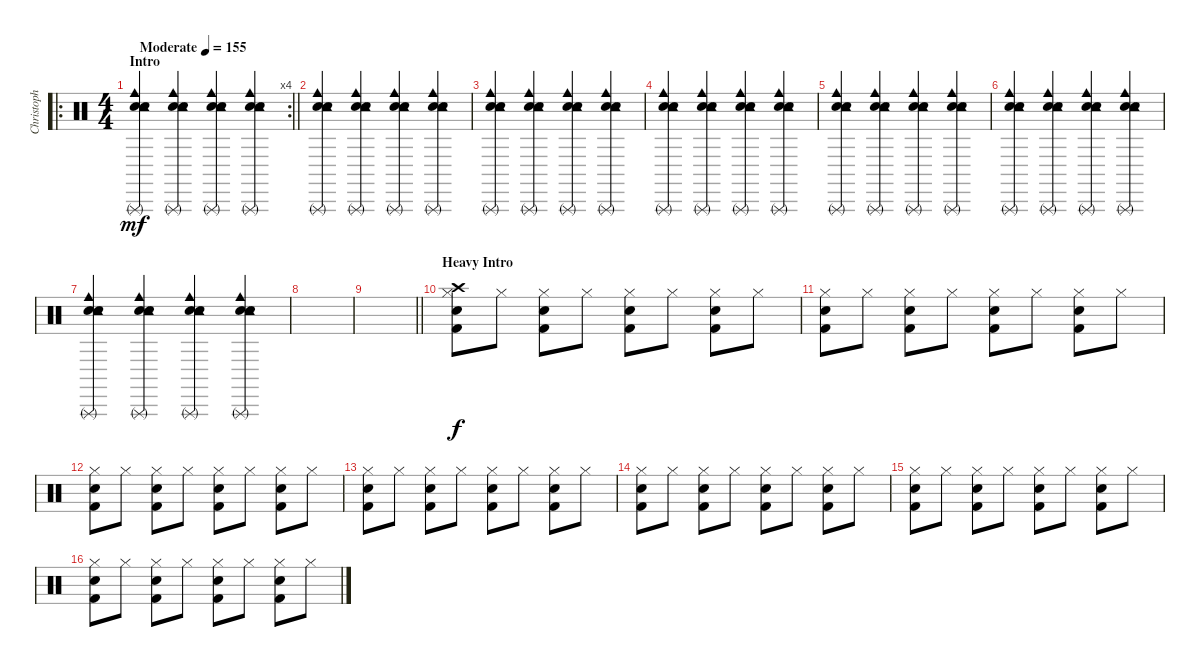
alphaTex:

\track ("Christoph \"Doom\" Schneider" "Christoph ") {instrument percussion}
\staff {score}
\articulation defaults
\ro
\rc 4
\ts (4 4)
\section ("" "Intro")
\tempo (155 "Moderate")
\clef neutral
\barLineRight lightlight
\ks c
("Electric Snare (hit)" "Tambourine (hit)" "Snare (hit) 2" "Cowbell medium (hit)" "Triangle (rnute)").4{dy mf} ("Electric Snare (hit)" "Tambourine (hit)" "Snare (hit) 2" "Cowbell medium (hit)" "Triangle (rnute)").4 ("Electric Snare (hit)" "Tambourine (hit)" "Snare (hit) 2" "Cowbell medium (hit)" "Triangle (rnute)").4 ("Electric Snare (hit)" "Tambourine (hit)" "Snare (hit) 2" "Cowbell medium (hit)" "Triangle (rnute)").4 |
\section ("" "")
("Electric Snare (hit)" "Tambourine (hit)" "Snare (hit) 2" "Cowbell medium (hit)" "Triangle (rnute)").4 ("Electric Snare (hit)" "Tambourine (hit)" "Snare (hit) 2" "Cowbell medium (hit)" "Triangle (rnute)").4 ("Electric Snare (hit)" "Tambourine (hit)" "Snare (hit) 2" "Cowbell medium (hit)" "Triangle (rnute)").4 ("Electric Snare (hit)" "Tambourine (hit)" "Snare (hit) 2" "Cowbell medium (hit)" "Triangle (rnute)").4 |
("Electric Snare (hit)" "Tambourine (hit)" "Snare (hit) 2" "Cowbell medium (hit)" "Triangle (rnute)").4 ("Electric Snare (hit)" "Tambourine (hit)" "Snare (hit) 2" "Cowbell medium (hit)" "Triangle (rnute)").4 ("Electric Snare (hit)" "Tambourine (hit)" "Snare (hit) 2" "Cowbell medium (hit)" "Triangle (rnute)").4 ("Electric Snare (hit)" "Tambourine (hit)" "Snare (hit) 2" "Cowbell medium (hit)" "Triangle (rnute)").4 |
("Electric Snare (hit)" "Tambourine (hit)" "Snare (hit) 2" "Cowbell medium (hit)" "Triangle (rnute)").4 ("Electric Snare (hit)" "Tambourine (hit)" "Snare (hit) 2" "Cowbell medium (hit)" "Triangle (rnute)").4 ("Electric Snare (hit)" "Tambourine (hit)" "Snare (hit) 2" "Cowbell medium (hit)" "Triangle (rnute)").4 ("Electric Snare (hit)" "Tambourine (hit)" "Snare (hit) 2" "Cowbell medium (hit)" "Triangle (rnute)").4 |
("Electric Snare (hit)" "Tambourine (hit)" "Snare (hit) 2" "Cowbell medium (hit)" "Triangle (rnute)").4 ("Electric Snare (hit)" "Tambourine (hit)" "Snare (hit) 2" "Cowbell medium (hit)" "Triangle (rnute)").4 ("Electric Snare (hit)" "Tambourine (hit)" "Snare (hit) 2" "Cowbell medium (hit)" "Triangle (rnute)").4 ("Electric Snare (hit)" "Tambourine (hit)" "Snare (hit) 2" "Cowbell medium (hit)" "Triangle (rnute)").4 |
("Electric Snare (hit)" "Tambourine (hit)" "Snare (hit) 2" "Cowbell medium (hit)" "Triangle (rnute)").4 ("Electric Snare (hit)" "Tambourine (hit)" "Snare (hit) 2" "Cowbell medium (hit)" "Triangle (rnute)").4 ("Electric Snare (hit)" "Tambourine (hit)" "Snare (hit) 2" "Cowbell medium (hit)" "Triangle (rnute)").4 ("Electric Snare (hit)" "Tambourine (hit)" "Snare (hit) 2" "Cowbell medium (hit)" "Triangle (rnute)").4 |
("Electric Snare (hit)" "Tambourine (hit)" "Snare (hit) 2" "Cowbell medium (hit)" "Triangle (rnute)").4 ("Electric Snare (hit)" "Tambourine (hit)" "Snare (hit) 2" "Cowbell medium (hit)" "Triangle (rnute)").4 ("Electric Snare (hit)" "Tambourine (hit)" "Snare (hit) 2" "Cowbell medium (hit)" "Triangle (rnute)").4 ("Electric Snare (hit)" "Tambourine (hit)" "Snare (hit) 2" "Cowbell medium (hit)" "Triangle (rnute)").4 |
|
\barLineRight lightlight
|
\section ("" "Heavy Intro")
("Crash high (hit)" "Hi-Hat (closed)" "Snare (hit) 2" "Kick (hit) 2").8{dy f} "Hi-Hat (closed)".8 ("Hi-Hat (closed)" "Snare (hit) 2" "Kick (hit) 2").8 "Hi-Hat (closed)".8 ("Hi-Hat (closed)" "Snare (hit) 2" "Kick (hit) 2").8 "Hi-Hat (closed)".8 ("Hi-Hat (closed)" "Snare (hit) 2" "Kick (hit) 2").8 "Hi-Hat (closed)".8 |
("Hi-Hat (closed)" "Snare (hit) 2" "Kick (hit) 2").8 "Hi-Hat (closed)".8 ("Hi-Hat (closed)" "Snare (hit) 2" "Kick (hit) 2").8 "Hi-Hat (closed)".8 ("Hi-Hat (closed)" "Snare (hit) 2" "Kick (hit) 2").8 "Hi-Hat (closed)".8 ("Hi-Hat (closed)" "Snare (hit) 2" "Kick (hit) 2").8 "Hi-Hat (closed)".8 |
("Hi-Hat (closed)" "Snare (hit) 2" "Kick (hit) 2").8 "Hi-Hat (closed)".8 ("Hi-Hat (closed)" "Snare (hit) 2" "Kick (hit) 2").8 "Hi-Hat (closed)".8 ("Hi-Hat (closed)" "Snare (hit) 2" "Kick (hit) 2").8 "Hi-Hat (closed)".8 ("Hi-Hat (closed)" "Snare (hit) 2" "Kick (hit) 2").8 "Hi-Hat (closed)".8 |
("Hi-Hat (closed)" "Snare (hit) 2" "Kick (hit) 2").8 "Hi-Hat (closed)".8 ("Hi-Hat (closed)" "Snare (hit) 2" "Kick (hit) 2").8 "Hi-Hat (closed)".8 ("Hi-Hat (closed)" "Snare (hit) 2" "Kick (hit) 2").8 "Hi-Hat (closed)".8 ("Hi-Hat (closed)" "Snare (hit) 2" "Kick (hit) 2").8 "Hi-Hat (closed)".8 |
("Hi-Hat (closed)" "Snare (hit) 2" "Kick (hit) 2").8 "Hi-Hat (closed)".8 ("Hi-Hat (closed)" "Snare (hit) 2" "Kick (hit) 2").8 "Hi-Hat (closed)".8 ("Hi-Hat (closed)" "Snare (hit) 2" "Kick (hit) 2").8 "Hi-Hat (closed)".8 ("Hi-Hat (closed)" "Snare (hit) 2" "Kick (hit) 2").8 "Hi-Hat (closed)".8 |
("Hi-Hat (closed)" "Snare (hit) 2" "Kick (hit) 2").8 "Hi-Hat (closed)".8 ("Hi-Hat (closed)" "Snare (hit) 2" "Kick (hit) 2").8 "Hi-Hat (closed)".8 ("Hi-Hat (closed)" "Snare (hit) 2" "Kick (hit) 2").8 "Hi-Hat (closed)".8 ("Hi-Hat (closed)" "Snare (hit) 2" "Kick (hit) 2").8 "Hi-Hat (closed)".8 |
("Hi-Hat (closed)" "Snare (hit) 2" "Kick (hit) 2").8 "Hi-Hat (closed)".8 ("Hi-Hat (closed)" "Snare (hit) 2" "Kick (hit) 2").8 "Hi-Hat (closed)".8 ("Hi-Hat (closed)" "Snare (hit) 2" "Kick (hit) 2").8 "Hi-Hat (closed)".8 ("Hi-Hat (closed)" "Snare (hit) 2" "Kick (hit) 2").8 "Hi-Hat (closed)".8
